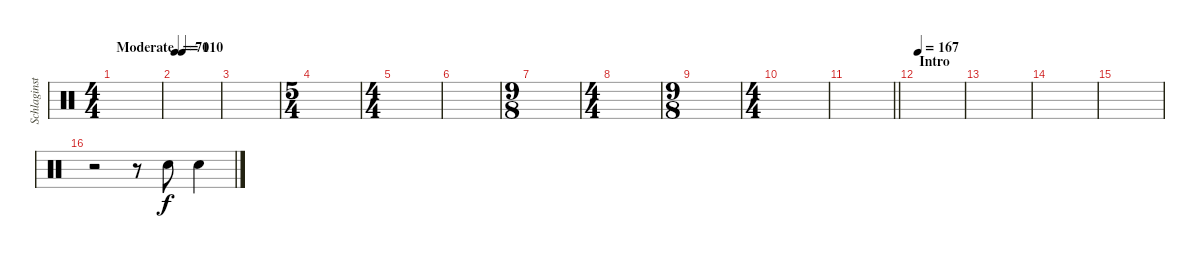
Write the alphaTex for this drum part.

\track ("Schlaginstrumente - Auswahl" "Schlaginst") {instrument percussion}
\staff {score}
\articulation defaults
\ts (4 4)
\tempo (110 "Moderate")
\clef neutral
\ks c
|
\tempo 70
|
|
\ts (5 4)
|
\ts (4 4)
|
|
\ts (9 8)
|
\ts (4 4)
|
\ts (9 8)
|
\ts (4 4)
|
\barLineRight lightlight
|
\section ("" "Intro")
\tempo 167
|
|
|
|
r.2 r.8 "Snare (hit) 2".8 "Snare (hit) 2".4
